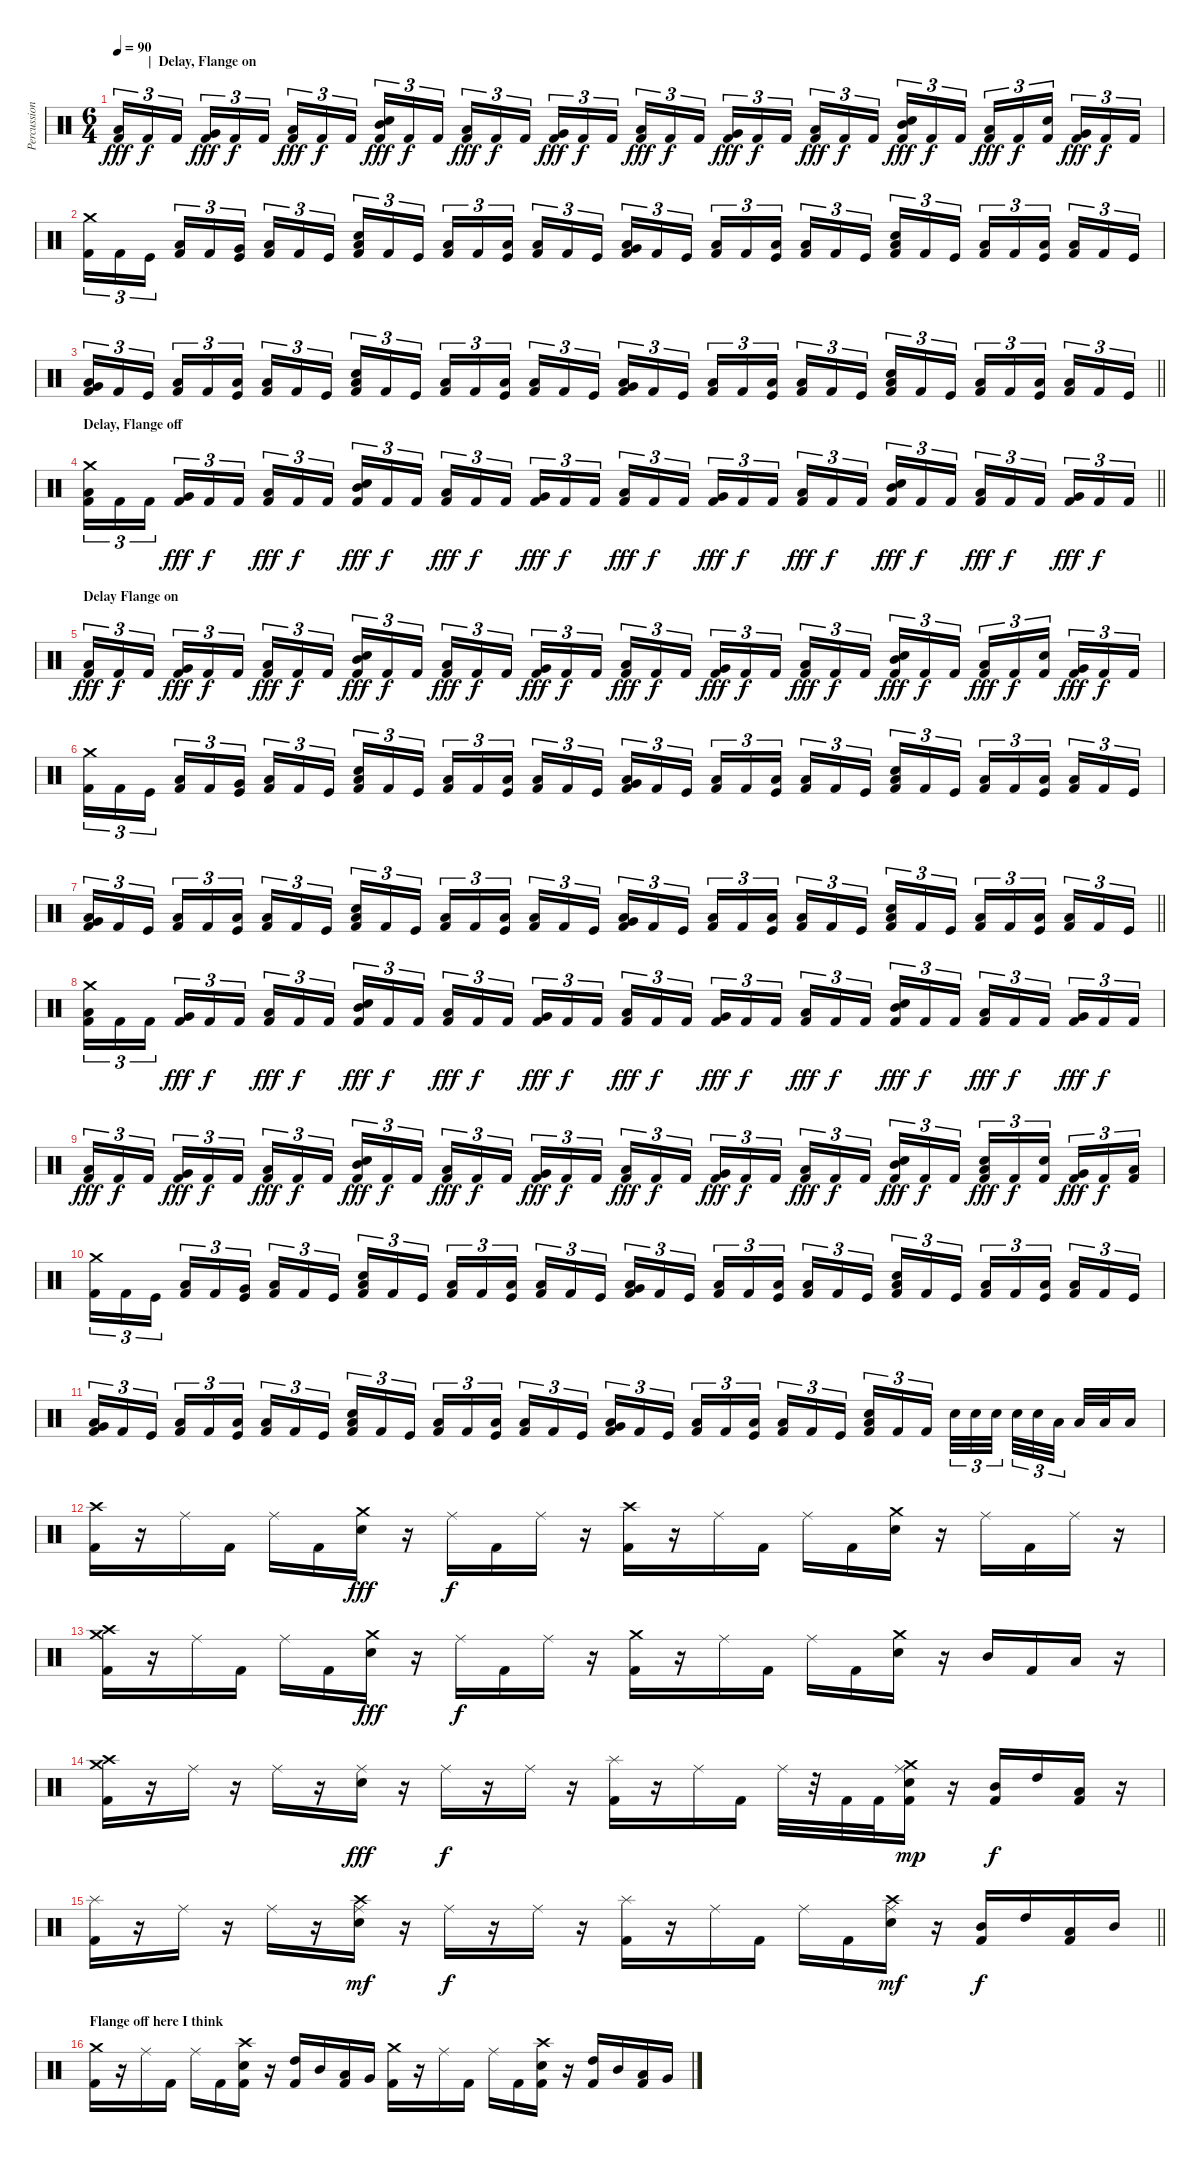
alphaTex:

\track ("Percussion" "Percussion") {instrument percussion}
\staff {score}
\articulation defaults
\ts (6 4)
\section ("" "          |  Delay, Flange on")
\tempo 90
\clef neutral
\ks c
("Low Floor Tom (hit)" "Kick (hit) 2").16{tu (3 2) dy fff} "Kick (hit) 2".16{tu (3 2) dy f} "Kick (hit) 2".16{tu (3 2) beam splitsecondary} ("Very Low Tom (hit)" "Kick (hit) 2").16{tu (3 2) dy fff} "Kick (hit) 2".16{tu (3 2) dy f} "Kick (hit) 2".16{tu (3 2) beam splitsecondary} ("Low Tom (hit)" "Kick (hit) 2").16{tu (3 2) dy fff} "Kick (hit) 2".16{tu (3 2) dy f} "Kick (hit) 2".16{tu (3 2) beam splitsecondary} ("Mid Tom (hit)" "Electric Snare (hit)" "Kick (hit) 2").16{tu (3 2) dy fff} "Kick (hit) 2".16{tu (3 2) dy f} "Kick (hit) 2".16{tu (3 2) beam splitsecondary} ("Low Tom (hit)" "Kick (hit) 2").16{tu (3 2) dy fff} "Kick (hit) 2".16{tu (3 2) dy f} "Kick (hit) 2".16{tu (3 2) beam splitsecondary} ("Very Low Tom (hit)" "Kick (hit) 2").16{tu (3 2) dy fff} "Kick (hit) 2".16{tu (3 2) dy f} "Kick (hit) 2".16{tu (3 2)} ("Low Floor Tom (hit)" "Kick (hit) 2").16{tu (3 2) dy fff} "Kick (hit) 2".16{tu (3 2) dy f} "Kick (hit) 2".16{tu (3 2) beam splitsecondary} ("Very Low Tom (hit)" "Kick (hit) 2").16{tu (3 2) dy fff} "Kick (hit) 2".16{tu (3 2) dy f} "Kick (hit) 2".16{tu (3 2) beam splitsecondary} ("Low Tom (hit)" "Kick (hit) 2").16{tu (3 2) dy fff} "Kick (hit) 2".16{tu (3 2) dy f} "Kick (hit) 2".16{tu (3 2) beam splitsecondary} ("Mid Tom (hit)" "Electric Snare (hit)" "Kick (hit) 2").16{tu (3 2) dy fff} "Kick (hit) 2".16{tu (3 2) dy f} "Kick (hit) 2".16{tu (3 2) beam splitsecondary} ("Low Tom (hit)" "Kick (hit) 2").16{tu (3 2) dy fff} "Kick (hit) 2".16{tu (3 2) dy f} ("Electric Snare (hit)" "Kick (hit) 2").16{tu (3 2) beam splitsecondary} ("Very Low Tom (hit)" "Kick (hit) 2").16{tu (3 2) dy fff} "Kick (hit) 2".16{tu (3 2) dy f} "Kick (hit) 2".16{tu (3 2)} |
("Crash medium (hit)" "Kick (hit) 2").16{tu (3 2)} "Kick (hit) 2".16{tu (3 2)} "Kick (hit)".16{tu (3 2) beam splitsecondary} ("Low Floor Tom (hit)" "Kick (hit) 2").16{tu (3 2)} "Kick (hit) 2".16{tu (3 2)} ("Very Low Tom (hit)" "Kick (hit)").16{tu (3 2) beam splitsecondary} ("Low Floor Tom (hit)" "Kick (hit) 2").16{tu (3 2)} "Kick (hit) 2".16{tu (3 2)} "Kick (hit)".16{tu (3 2) beam splitsecondary} ("Low Floor Tom (hit)" "Electric Snare (hit)" "Kick (hit) 2").16{tu (3 2)} "Kick (hit) 2".16{tu (3 2)} "Kick (hit)".16{tu (3 2) beam splitsecondary} ("Low Floor Tom (hit)" "Kick (hit) 2").16{tu (3 2)} "Kick (hit) 2".16{tu (3 2)} ("Low Tom (hit)" "Kick (hit)").16{tu (3 2) beam splitsecondary} ("Low Floor Tom (hit)" "Kick (hit) 2").16{tu (3 2)} "Kick (hit) 2".16{tu (3 2)} "Kick (hit)".16{tu (3 2)} ("Low Floor Tom (hit)" "Very Low Tom (hit)" "Kick (hit) 2").16{tu (3 2)} "Kick (hit) 2".16{tu (3 2)} "Kick (hit)".16{tu (3 2) beam splitsecondary} ("Low Floor Tom (hit)" "Kick (hit) 2").16{tu (3 2)} "Kick (hit) 2".16{tu (3 2)} ("Low Tom (hit)" "Kick (hit)").16{tu (3 2) beam splitsecondary} ("Low Floor Tom (hit)" "Kick (hit) 2").16{tu (3 2)} "Kick (hit) 2".16{tu (3 2)} "Kick (hit)".16{tu (3 2) beam splitsecondary} ("Low Floor Tom (hit)" "Electric Snare (hit)" "Kick (hit) 2").16{tu (3 2)} "Kick (hit) 2".16{tu (3 2)} "Kick (hit)".16{tu (3 2) beam splitsecondary} ("Low Floor Tom (hit)" "Kick (hit) 2").16{tu (3 2)} "Kick (hit) 2".16{tu (3 2)} ("Low Tom (hit)" "Kick (hit)").16{tu (3 2) beam splitsecondary} ("Low Floor Tom (hit)" "Kick (hit) 2").16{tu (3 2)} "Kick (hit) 2".16{tu (3 2)} "Kick (hit)".16{tu (3 2)} |
\barLineRight lightlight
("Low Floor Tom (hit)" "Very Low Tom (hit)" "Kick (hit) 2").16{tu (3 2)} "Kick (hit) 2".16{tu (3 2)} "Kick (hit)".16{tu (3 2) beam splitsecondary} ("Low Floor Tom (hit)" "Kick (hit) 2").16{tu (3 2)} "Kick (hit) 2".16{tu (3 2)} ("Low Tom (hit)" "Kick (hit)").16{tu (3 2) beam splitsecondary} ("Low Floor Tom (hit)" "Kick (hit) 2").16{tu (3 2)} "Kick (hit) 2".16{tu (3 2)} "Kick (hit)".16{tu (3 2) beam splitsecondary} ("Low Floor Tom (hit)" "Electric Snare (hit)" "Kick (hit) 2").16{tu (3 2)} "Kick (hit) 2".16{tu (3 2)} "Kick (hit)".16{tu (3 2) beam splitsecondary} ("Low Floor Tom (hit)" "Kick (hit) 2").16{tu (3 2)} "Kick (hit) 2".16{tu (3 2)} ("Low Tom (hit)" "Kick (hit)").16{tu (3 2) beam splitsecondary} ("Low Floor Tom (hit)" "Kick (hit) 2").16{tu (3 2)} "Kick (hit) 2".16{tu (3 2)} "Kick (hit)".16{tu (3 2)} ("Low Floor Tom (hit)" "Very Low Tom (hit)" "Kick (hit) 2").16{tu (3 2)} "Kick (hit) 2".16{tu (3 2)} "Kick (hit)".16{tu (3 2) beam splitsecondary} ("Low Floor Tom (hit)" "Kick (hit) 2").16{tu (3 2)} "Kick (hit) 2".16{tu (3 2)} ("Low Tom (hit)" "Kick (hit)").16{tu (3 2) beam splitsecondary} ("Low Floor Tom (hit)" "Kick (hit) 2").16{tu (3 2)} "Kick (hit) 2".16{tu (3 2)} "Kick (hit)".16{tu (3 2) beam splitsecondary} ("Low Floor Tom (hit)" "Electric Snare (hit)" "Kick (hit) 2").16{tu (3 2)} "Kick (hit) 2".16{tu (3 2)} "Kick (hit)".16{tu (3 2) beam splitsecondary} ("Low Floor Tom (hit)" "Kick (hit) 2").16{tu (3 2)} "Kick (hit) 2".16{tu (3 2)} ("Low Tom (hit)" "Kick (hit)").16{tu (3 2) beam splitsecondary} ("Low Floor Tom (hit)" "Kick (hit) 2").16{tu (3 2)} "Kick (hit) 2".16{tu (3 2)} "Kick (hit)".16{tu (3 2)} |
\section ("" "Delay, Flange off")
\barLineRight lightlight
("Crash medium (hit)" "Low Floor Tom (hit)" "Kick (hit) 2").16{tu (3 2)} "Kick (hit) 2".16{tu (3 2)} "Kick (hit) 2".16{tu (3 2) beam splitsecondary} ("Very Low Tom (hit)" "Kick (hit) 2").16{tu (3 2) dy fff} "Kick (hit) 2".16{tu (3 2) dy f} "Kick (hit) 2".16{tu (3 2) beam splitsecondary} ("Low Tom (hit)" "Kick (hit) 2").16{tu (3 2) dy fff} "Kick (hit) 2".16{tu (3 2) dy f} "Kick (hit) 2".16{tu (3 2) beam splitsecondary} ("Mid Tom (hit)" "Electric Snare (hit)" "Kick (hit) 2").16{tu (3 2) dy fff} "Kick (hit) 2".16{tu (3 2) dy f} "Kick (hit) 2".16{tu (3 2) beam splitsecondary} ("Low Tom (hit)" "Kick (hit) 2").16{tu (3 2) dy fff} "Kick (hit) 2".16{tu (3 2) dy f} "Kick (hit) 2".16{tu (3 2) beam splitsecondary} ("Very Low Tom (hit)" "Kick (hit) 2").16{tu (3 2) dy fff} "Kick (hit) 2".16{tu (3 2) dy f} "Kick (hit) 2".16{tu (3 2)} ("Low Floor Tom (hit)" "Kick (hit) 2").16{tu (3 2) dy fff} "Kick (hit) 2".16{tu (3 2) dy f} "Kick (hit) 2".16{tu (3 2) beam splitsecondary} ("Very Low Tom (hit)" "Kick (hit) 2").16{tu (3 2) dy fff} "Kick (hit) 2".16{tu (3 2) dy f} "Kick (hit) 2".16{tu (3 2) beam splitsecondary} ("Low Tom (hit)" "Kick (hit) 2").16{tu (3 2) dy fff} "Kick (hit) 2".16{tu (3 2) dy f} "Kick (hit) 2".16{tu (3 2) beam splitsecondary} ("Mid Tom (hit)" "Electric Snare (hit)" "Kick (hit) 2").16{tu (3 2) dy fff} "Kick (hit) 2".16{tu (3 2) dy f} "Kick (hit) 2".16{tu (3 2) beam splitsecondary} ("Low Tom (hit)" "Kick (hit) 2").16{tu (3 2) dy fff} "Kick (hit) 2".16{tu (3 2) dy f} "Kick (hit) 2".16{tu (3 2) beam splitsecondary} ("Very Low Tom (hit)" "Kick (hit) 2").16{tu (3 2) dy fff} "Kick (hit) 2".16{tu (3 2) dy f} "Kick (hit) 2".16{tu (3 2)} |
\section ("" "Delay Flange on")
("Low Floor Tom (hit)" "Kick (hit) 2").16{tu (3 2) dy fff} "Kick (hit) 2".16{tu (3 2) dy f} "Kick (hit) 2".16{tu (3 2) beam splitsecondary} ("Very Low Tom (hit)" "Kick (hit) 2").16{tu (3 2) dy fff} "Kick (hit) 2".16{tu (3 2) dy f} "Kick (hit) 2".16{tu (3 2) beam splitsecondary} ("Low Tom (hit)" "Kick (hit) 2").16{tu (3 2) dy fff} "Kick (hit) 2".16{tu (3 2) dy f} "Kick (hit) 2".16{tu (3 2) beam splitsecondary} ("Mid Tom (hit)" "Electric Snare (hit)" "Kick (hit) 2").16{tu (3 2) dy fff} "Kick (hit) 2".16{tu (3 2) dy f} "Kick (hit) 2".16{tu (3 2) beam splitsecondary} ("Low Tom (hit)" "Kick (hit) 2").16{tu (3 2) dy fff} "Kick (hit) 2".16{tu (3 2) dy f} "Kick (hit) 2".16{tu (3 2) beam splitsecondary} ("Very Low Tom (hit)" "Kick (hit) 2").16{tu (3 2) dy fff} "Kick (hit) 2".16{tu (3 2) dy f} "Kick (hit) 2".16{tu (3 2)} ("Low Floor Tom (hit)" "Kick (hit) 2").16{tu (3 2) dy fff} "Kick (hit) 2".16{tu (3 2) dy f} "Kick (hit) 2".16{tu (3 2) beam splitsecondary} ("Very Low Tom (hit)" "Kick (hit) 2").16{tu (3 2) dy fff} "Kick (hit) 2".16{tu (3 2) dy f} "Kick (hit) 2".16{tu (3 2) beam splitsecondary} ("Low Tom (hit)" "Kick (hit) 2").16{tu (3 2) dy fff} "Kick (hit) 2".16{tu (3 2) dy f} "Kick (hit) 2".16{tu (3 2) beam splitsecondary} ("Mid Tom (hit)" "Electric Snare (hit)" "Kick (hit) 2").16{tu (3 2) dy fff} "Kick (hit) 2".16{tu (3 2) dy f} "Kick (hit) 2".16{tu (3 2) beam splitsecondary} ("Low Tom (hit)" "Kick (hit) 2").16{tu (3 2) dy fff} "Kick (hit) 2".16{tu (3 2) dy f} ("Electric Snare (hit)" "Kick (hit) 2").16{tu (3 2) beam splitsecondary} ("Very Low Tom (hit)" "Kick (hit) 2").16{tu (3 2) dy fff} "Kick (hit) 2".16{tu (3 2) dy f} "Kick (hit) 2".16{tu (3 2)} |
("Crash medium (hit)" "Kick (hit) 2").16{tu (3 2)} "Kick (hit) 2".16{tu (3 2)} "Kick (hit)".16{tu (3 2) beam splitsecondary} ("Low Floor Tom (hit)" "Kick (hit) 2").16{tu (3 2)} "Kick (hit) 2".16{tu (3 2)} ("Very Low Tom (hit)" "Kick (hit)").16{tu (3 2) beam splitsecondary} ("Low Floor Tom (hit)" "Kick (hit) 2").16{tu (3 2)} "Kick (hit) 2".16{tu (3 2)} "Kick (hit)".16{tu (3 2) beam splitsecondary} ("Low Floor Tom (hit)" "Electric Snare (hit)" "Kick (hit) 2").16{tu (3 2)} "Kick (hit) 2".16{tu (3 2)} "Kick (hit)".16{tu (3 2) beam splitsecondary} ("Low Floor Tom (hit)" "Kick (hit) 2").16{tu (3 2)} "Kick (hit) 2".16{tu (3 2)} ("Low Tom (hit)" "Kick (hit)").16{tu (3 2) beam splitsecondary} ("Low Floor Tom (hit)" "Kick (hit) 2").16{tu (3 2)} "Kick (hit) 2".16{tu (3 2)} "Kick (hit)".16{tu (3 2)} ("Low Floor Tom (hit)" "Very Low Tom (hit)" "Kick (hit) 2").16{tu (3 2)} "Kick (hit) 2".16{tu (3 2)} "Kick (hit)".16{tu (3 2) beam splitsecondary} ("Low Floor Tom (hit)" "Kick (hit) 2").16{tu (3 2)} "Kick (hit) 2".16{tu (3 2)} ("Low Tom (hit)" "Kick (hit)").16{tu (3 2) beam splitsecondary} ("Low Floor Tom (hit)" "Kick (hit) 2").16{tu (3 2)} "Kick (hit) 2".16{tu (3 2)} "Kick (hit)".16{tu (3 2) beam splitsecondary} ("Low Floor Tom (hit)" "Electric Snare (hit)" "Kick (hit) 2").16{tu (3 2)} "Kick (hit) 2".16{tu (3 2)} "Kick (hit)".16{tu (3 2) beam splitsecondary} ("Low Floor Tom (hit)" "Kick (hit) 2").16{tu (3 2)} "Kick (hit) 2".16{tu (3 2)} ("Low Tom (hit)" "Kick (hit)").16{tu (3 2) beam splitsecondary} ("Low Floor Tom (hit)" "Kick (hit) 2").16{tu (3 2)} "Kick (hit) 2".16{tu (3 2)} "Kick (hit)".16{tu (3 2)} |
\barLineRight lightlight
("Low Floor Tom (hit)" "Very Low Tom (hit)" "Kick (hit) 2").16{tu (3 2)} "Kick (hit) 2".16{tu (3 2)} "Kick (hit)".16{tu (3 2) beam splitsecondary} ("Low Floor Tom (hit)" "Kick (hit) 2").16{tu (3 2)} "Kick (hit) 2".16{tu (3 2)} ("Low Tom (hit)" "Kick (hit)").16{tu (3 2) beam splitsecondary} ("Low Floor Tom (hit)" "Kick (hit) 2").16{tu (3 2)} "Kick (hit) 2".16{tu (3 2)} "Kick (hit)".16{tu (3 2) beam splitsecondary} ("Low Floor Tom (hit)" "Electric Snare (hit)" "Kick (hit) 2").16{tu (3 2)} "Kick (hit) 2".16{tu (3 2)} "Kick (hit)".16{tu (3 2) beam splitsecondary} ("Low Floor Tom (hit)" "Kick (hit) 2").16{tu (3 2)} "Kick (hit) 2".16{tu (3 2)} ("Low Tom (hit)" "Kick (hit)").16{tu (3 2) beam splitsecondary} ("Low Floor Tom (hit)" "Kick (hit) 2").16{tu (3 2)} "Kick (hit) 2".16{tu (3 2)} "Kick (hit)".16{tu (3 2)} ("Low Floor Tom (hit)" "Very Low Tom (hit)" "Kick (hit) 2").16{tu (3 2)} "Kick (hit) 2".16{tu (3 2)} "Kick (hit)".16{tu (3 2) beam splitsecondary} ("Low Floor Tom (hit)" "Kick (hit) 2").16{tu (3 2)} "Kick (hit) 2".16{tu (3 2)} ("Low Tom (hit)" "Kick (hit)").16{tu (3 2) beam splitsecondary} ("Low Floor Tom (hit)" "Kick (hit) 2").16{tu (3 2)} "Kick (hit) 2".16{tu (3 2)} "Kick (hit)".16{tu (3 2) beam splitsecondary} ("Low Floor Tom (hit)" "Electric Snare (hit)" "Kick (hit) 2").16{tu (3 2)} "Kick (hit) 2".16{tu (3 2)} "Kick (hit)".16{tu (3 2) beam splitsecondary} ("Low Floor Tom (hit)" "Kick (hit) 2").16{tu (3 2)} "Kick (hit) 2".16{tu (3 2)} ("Low Tom (hit)" "Kick (hit)").16{tu (3 2) beam splitsecondary} ("Low Floor Tom (hit)" "Kick (hit) 2").16{tu (3 2)} "Kick (hit) 2".16{tu (3 2)} "Kick (hit)".16{tu (3 2)} |
("Crash medium (hit)" "Low Floor Tom (hit)" "Kick (hit) 2").16{tu (3 2)} "Kick (hit) 2".16{tu (3 2)} "Kick (hit) 2".16{tu (3 2) beam splitsecondary} ("Very Low Tom (hit)" "Kick (hit) 2").16{tu (3 2) dy fff} "Kick (hit) 2".16{tu (3 2) dy f} "Kick (hit) 2".16{tu (3 2) beam splitsecondary} ("Low Tom (hit)" "Kick (hit) 2").16{tu (3 2) dy fff} "Kick (hit) 2".16{tu (3 2) dy f} "Kick (hit) 2".16{tu (3 2) beam splitsecondary} ("Mid Tom (hit)" "Electric Snare (hit)" "Kick (hit) 2").16{tu (3 2) dy fff} "Kick (hit) 2".16{tu (3 2) dy f} "Kick (hit) 2".16{tu (3 2) beam splitsecondary} ("Low Tom (hit)" "Kick (hit) 2").16{tu (3 2) dy fff} "Kick (hit) 2".16{tu (3 2) dy f} "Kick (hit) 2".16{tu (3 2) beam splitsecondary} ("Very Low Tom (hit)" "Kick (hit) 2").16{tu (3 2) dy fff} "Kick (hit) 2".16{tu (3 2) dy f} "Kick (hit) 2".16{tu (3 2)} ("Low Floor Tom (hit)" "Kick (hit) 2").16{tu (3 2) dy fff} "Kick (hit) 2".16{tu (3 2) dy f} "Kick (hit) 2".16{tu (3 2) beam splitsecondary} ("Very Low Tom (hit)" "Kick (hit) 2").16{tu (3 2) dy fff} "Kick (hit) 2".16{tu (3 2) dy f} "Kick (hit) 2".16{tu (3 2) beam splitsecondary} ("Low Tom (hit)" "Kick (hit) 2").16{tu (3 2) dy fff} "Kick (hit) 2".16{tu (3 2) dy f} "Kick (hit) 2".16{tu (3 2) beam splitsecondary} ("Mid Tom (hit)" "Electric Snare (hit)" "Kick (hit) 2").16{tu (3 2) dy fff} "Kick (hit) 2".16{tu (3 2) dy f} "Kick (hit) 2".16{tu (3 2) beam splitsecondary} ("Low Tom (hit)" "Kick (hit) 2").16{tu (3 2) dy fff} "Kick (hit) 2".16{tu (3 2) dy f} "Kick (hit) 2".16{tu (3 2) beam splitsecondary} ("Very Low Tom (hit)" "Kick (hit) 2").16{tu (3 2) dy fff} "Kick (hit) 2".16{tu (3 2) dy f} "Kick (hit) 2".16{tu (3 2)} |
("Low Floor Tom (hit)" "Kick (hit) 2").16{tu (3 2) dy fff} "Kick (hit) 2".16{tu (3 2) dy f} "Kick (hit) 2".16{tu (3 2) beam splitsecondary} ("Very Low Tom (hit)" "Kick (hit) 2").16{tu (3 2) dy fff} "Kick (hit) 2".16{tu (3 2) dy f} "Kick (hit) 2".16{tu (3 2) beam splitsecondary} ("Low Tom (hit)" "Kick (hit) 2").16{tu (3 2) dy fff} "Kick (hit) 2".16{tu (3 2) dy f} "Kick (hit) 2".16{tu (3 2) beam splitsecondary} ("Mid Tom (hit)" "Electric Snare (hit)" "Kick (hit) 2").16{tu (3 2) dy fff} "Kick (hit) 2".16{tu (3 2) dy f} "Kick (hit) 2".16{tu (3 2) beam splitsecondary} ("Low Tom (hit)" "Kick (hit) 2").16{tu (3 2) dy fff} "Kick (hit) 2".16{tu (3 2) dy f} "Kick (hit) 2".16{tu (3 2) beam splitsecondary} ("Very Low Tom (hit)" "Kick (hit) 2").16{tu (3 2) dy fff} "Kick (hit) 2".16{tu (3 2) dy f} "Kick (hit) 2".16{tu (3 2)} ("Low Floor Tom (hit)" "Kick (hit) 2").16{tu (3 2) dy fff} "Kick (hit) 2".16{tu (3 2) dy f} "Kick (hit) 2".16{tu (3 2) beam splitsecondary} ("Very Low Tom (hit)" "Kick (hit) 2").16{tu (3 2) dy fff} "Kick (hit) 2".16{tu (3 2) dy f} "Kick (hit) 2".16{tu (3 2) beam splitsecondary} ("Low Tom (hit)" "Kick (hit) 2").16{tu (3 2) dy fff} "Kick (hit) 2".16{tu (3 2) dy f} "Kick (hit) 2".16{tu (3 2) beam splitsecondary} ("Mid Tom (hit)" "Electric Snare (hit)" "Kick (hit) 2").16{tu (3 2) dy fff} "Kick (hit) 2".16{tu (3 2) dy f} "Kick (hit) 2".16{tu (3 2) beam splitsecondary} ("Low Tom (hit)" "Electric Snare (hit)" "Kick (hit) 2").16{tu (3 2) dy fff} "Kick (hit) 2".16{tu (3 2) dy f} ("Electric Snare (hit)" "Kick (hit) 2").16{tu (3 2) beam splitsecondary} ("Very Low Tom (hit)" "Kick (hit) 2").16{tu (3 2) dy fff} "Kick (hit) 2".16{tu (3 2) dy f} ("Low Floor Tom (hit)" "Kick (hit) 2").16{tu (3 2)} |
("Crash medium (hit)" "Kick (hit) 2").16{tu (3 2)} "Kick (hit) 2".16{tu (3 2)} "Kick (hit)".16{tu (3 2) beam splitsecondary} ("Low Floor Tom (hit)" "Kick (hit) 2").16{tu (3 2)} "Kick (hit) 2".16{tu (3 2)} ("Very Low Tom (hit)" "Kick (hit)").16{tu (3 2) beam splitsecondary} ("Low Floor Tom (hit)" "Kick (hit) 2").16{tu (3 2)} "Kick (hit) 2".16{tu (3 2)} "Kick (hit)".16{tu (3 2) beam splitsecondary} ("Low Floor Tom (hit)" "Electric Snare (hit)" "Kick (hit) 2").16{tu (3 2)} "Kick (hit) 2".16{tu (3 2)} "Kick (hit)".16{tu (3 2) beam splitsecondary} ("Low Floor Tom (hit)" "Kick (hit) 2").16{tu (3 2)} "Kick (hit) 2".16{tu (3 2)} ("Low Tom (hit)" "Kick (hit)").16{tu (3 2) beam splitsecondary} ("Low Floor Tom (hit)" "Kick (hit) 2").16{tu (3 2)} "Kick (hit) 2".16{tu (3 2)} "Kick (hit)".16{tu (3 2)} ("Low Floor Tom (hit)" "Very Low Tom (hit)" "Kick (hit) 2").16{tu (3 2)} "Kick (hit) 2".16{tu (3 2)} "Kick (hit)".16{tu (3 2) beam splitsecondary} ("Low Floor Tom (hit)" "Kick (hit) 2").16{tu (3 2)} "Kick (hit) 2".16{tu (3 2)} ("Low Tom (hit)" "Kick (hit)").16{tu (3 2) beam splitsecondary} ("Low Floor Tom (hit)" "Kick (hit) 2").16{tu (3 2)} "Kick (hit) 2".16{tu (3 2)} "Kick (hit)".16{tu (3 2) beam splitsecondary} ("Low Floor Tom (hit)" "Electric Snare (hit)" "Kick (hit) 2").16{tu (3 2)} "Kick (hit) 2".16{tu (3 2)} "Kick (hit)".16{tu (3 2) beam splitsecondary} ("Low Floor Tom (hit)" "Kick (hit) 2").16{tu (3 2)} "Kick (hit) 2".16{tu (3 2)} ("Low Tom (hit)" "Kick (hit)").16{tu (3 2) beam splitsecondary} ("Low Floor Tom (hit)" "Kick (hit) 2").16{tu (3 2)} "Kick (hit) 2".16{tu (3 2)} "Kick (hit)".16{tu (3 2)} |
("Low Floor Tom (hit)" "Very Low Tom (hit)" "Kick (hit) 2").16{tu (3 2)} "Kick (hit) 2".16{tu (3 2)} "Kick (hit)".16{tu (3 2) beam splitsecondary} ("Low Floor Tom (hit)" "Kick (hit) 2").16{tu (3 2)} "Kick (hit) 2".16{tu (3 2)} ("Low Tom (hit)" "Kick (hit)").16{tu (3 2) beam splitsecondary} ("Low Floor Tom (hit)" "Kick (hit) 2").16{tu (3 2)} "Kick (hit) 2".16{tu (3 2)} "Kick (hit)".16{tu (3 2) beam splitsecondary} ("Low Floor Tom (hit)" "Electric Snare (hit)" "Kick (hit) 2").16{tu (3 2)} "Kick (hit) 2".16{tu (3 2)} "Kick (hit)".16{tu (3 2) beam splitsecondary} ("Low Floor Tom (hit)" "Kick (hit) 2").16{tu (3 2)} "Kick (hit) 2".16{tu (3 2)} ("Low Tom (hit)" "Kick (hit)").16{tu (3 2) beam splitsecondary} ("Low Floor Tom (hit)" "Kick (hit) 2").16{tu (3 2)} "Kick (hit) 2".16{tu (3 2)} "Kick (hit)".16{tu (3 2)} ("Low Floor Tom (hit)" "Very Low Tom (hit)" "Kick (hit) 2").16{tu (3 2)} "Kick (hit) 2".16{tu (3 2)} "Kick (hit)".16{tu (3 2) beam splitsecondary} ("Low Floor Tom (hit)" "Kick (hit) 2").16{tu (3 2)} "Kick (hit) 2".16{tu (3 2)} ("Low Tom (hit)" "Kick (hit)").16{tu (3 2) beam splitsecondary} ("Low Floor Tom (hit)" "Kick (hit) 2").16{tu (3 2)} "Kick (hit) 2".16{tu (3 2)} "Kick (hit)".16{tu (3 2) beam splitsecondary} ("Low Floor Tom (hit)" "Electric Snare (hit)" "Kick (hit) 2").16{tu (3 2)} "Kick (hit) 2".16{tu (3 2)} "Kick (hit) 2".16{tu (3 2) beam splitsecondary} "Electric Snare (hit)".32{tu (3 2)} "Electric Snare (hit)".32{tu (3 2)} "Electric Snare (hit)".32{tu (3 2) beam splitsecondary} "Electric Snare (hit)".32{tu (3 2)} "Electric Snare (hit)".32{tu (3 2)} "Low Floor Tom (hit)".32{tu (3 2) beam splitsecondary} "Low Floor Tom (hit)".32 "Low Floor Tom (hit)".32 "Low Floor Tom (hit)".16 |
("Crash high (hit)" "Kick (hit) 2").16 r.16 "Ride (middle)".16 "Kick (hit) 2".16 "Ride (middle)".16 "Kick (hit) 2".16 ("Crash medium (hit)" "Electric Snare (hit)").16{dy fff} r.16 "Ride (middle)".16{dy f} "Kick (hit) 2".16 "Ride (middle)".16 r.16 ("Crash high (hit)" "Kick (hit) 2").16 r.16 "Ride (middle)".16 "Kick (hit) 2".16 "Ride (middle)".16 "Kick (hit) 2".16 ("Crash medium (hit)" "Electric Snare (hit)").16 r.16 "Ride (middle)".16 "Kick (hit) 2".16 "Ride (middle)".16 r.16 |
("Crash medium (hit)" "Crash high (hit)" "Kick (hit) 2").16 r.16 "Ride (middle)".16 "Kick (hit) 2".16 "Ride (middle)".16 "Kick (hit) 2".16 ("Crash medium (hit)" "Electric Snare (hit)").16{dy fff} r.16 "Ride (middle)".16{dy f} "Kick (hit) 2".16 "Ride (middle)".16 r.16 ("Crash medium (hit)" "Kick (hit) 2").16 r.16 "Ride (middle)".16 "Kick (hit) 2".16 "Ride (middle)".16 "Kick (hit) 2".16 ("Crash medium (hit)" "Electric Snare (hit)").16 r.16 "Mid Tom (hit)".16 "Kick (hit) 2".16 "Low Floor Tom (hit)".16 r.16 |
("Crash medium (hit)" "Crash high (hit)" "Kick (hit) 2").16 r.16 "Ride (middle)".16 r.16 "Ride (middle)".16 r.16 ("Ride (middle)" "Electric Snare (hit)").16{dy fff} r.16 "Ride (middle)".16{dy f} r.16 "Ride (middle)".16 r.16 ("Splash (hit)" "Kick (hit) 2").16 r.16 "Ride (middle)".16 "Kick (hit) 2".16 "Ride (middle)".32 r.32 "Kick (hit) 2".32 "Kick (hit) 2".32 ("Ride (middle)" "Crash medium (hit)" "Electric Snare (hit)" "Kick (hit) 2").16{dy mp} r.16 ("Mid Tom (hit)" "Kick (hit) 2").16{dy f} "High Tom (hit)".16 ("Low Tom (hit)" "Kick (hit) 2").16 r.16 |
\barLineRight lightlight
("Splash (hit)" "Kick (hit) 2").16 r.16 "Ride (middle)".16 r.16 "Ride (middle)".16 r.16 ("Ride (middle)" "Crash high (hit)" "Electric Snare (hit)").16{dy mf} r.16 "Ride (middle)".16{dy f} r.16 "Ride (middle)".16 r.16 ("Splash (hit)" "Kick (hit) 2").16 r.16 "Ride (middle)".16 "Kick (hit) 2".16 "Ride (middle)".16 "Kick (hit) 2".16 ("Ride (middle)" "Crash high (hit)" "Electric Snare (hit)").16{dy mf} r.16 ("Mid Tom (hit)" "Kick (hit) 2").16{dy f} "High Tom (hit)".16 ("Low Tom (hit)" "Kick (hit) 2").16 "Mid Tom (hit)".16 |
\section ("" "Flange off here I think")
("Crash medium (hit)" "Kick (hit) 2").16 r.16 "Ride (middle)".16 "Kick (hit) 2".16 "Ride (middle)".16 "Kick (hit) 2".16 ("Crash high (hit)" "Electric Snare (hit)" "Kick (hit) 2").16 r.16 ("High Tom (hit)" "Kick (hit) 2").16 "Mid Tom (hit)".16 ("Low Tom (hit)" "Kick (hit) 2").16 "Very Low Tom (hit)".16 ("Crash medium (hit)" "Kick (hit) 2").16 r.16 "Ride (middle)".16 "Kick (hit) 2".16 "Ride (middle)".16 "Kick (hit) 2".16 ("Crash high (hit)" "Electric Snare (hit)" "Kick (hit) 2").16 r.16 ("High Tom (hit)" "Kick (hit) 2").16 "Mid Tom (hit)".16 ("Low Tom (hit)" "Kick (hit) 2").16 "Very Low Tom (hit)".16
